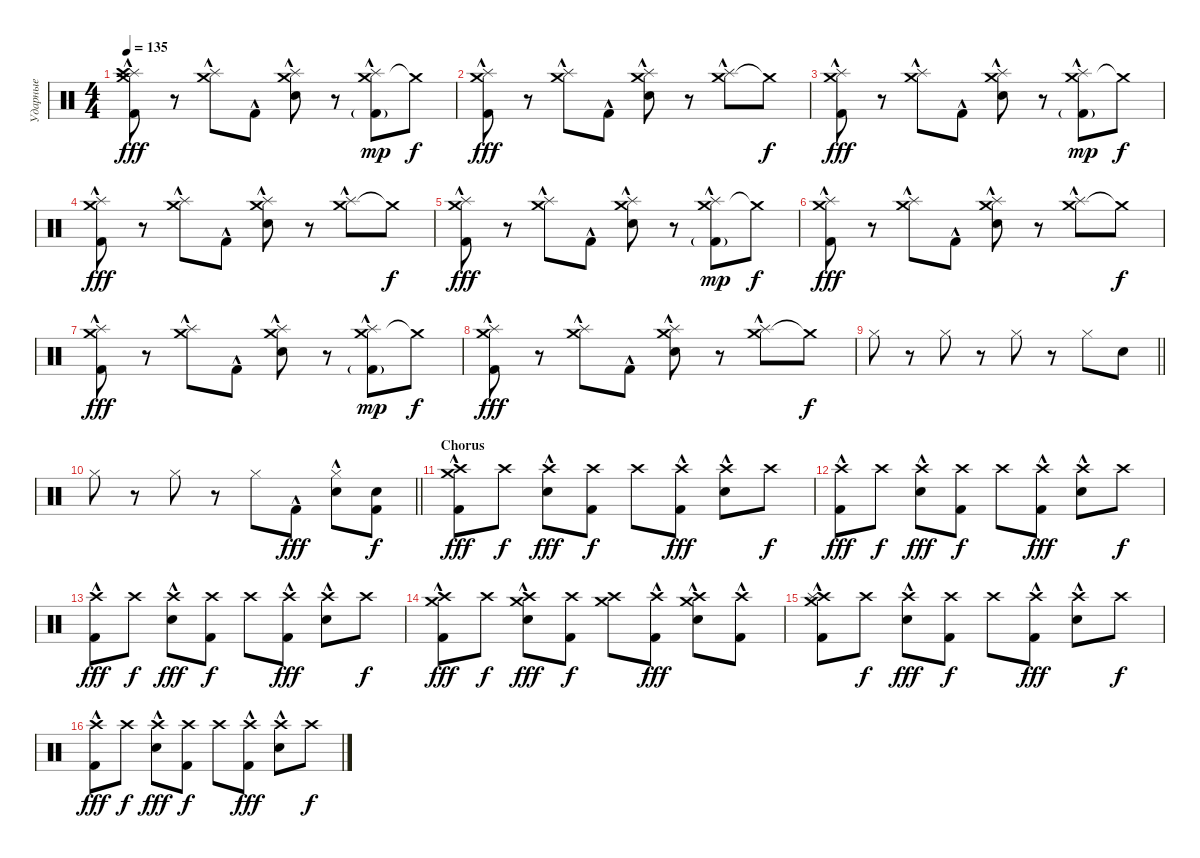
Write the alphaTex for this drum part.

\track ("Ударные" "Ударные") {instrument percussion}
\staff {score}
\articulation defaults
\ts (4 4)
\tempo 135
\clef neutral
\ks c
("Crash medium (hit)" "Splash (hit)"{hac} "Crash high (hit)"{hac} "Kick (hit) 2"{hac}).8{dy fff} r.8 ("Crash medium (hit)" "Splash (hit)"{hac}).8 "Kick (hit) 2"{hac}.8 ("Crash medium (hit)" "Splash (hit)"{hac} "Electric Snare (hit)").8 r.8 ("Crash medium (hit)" "Splash (hit)"{hac} "Kick (hit) 2"{g}).8{dy mp} "Crash medium (hit)"{t}.8{dy f} |
("Crash medium (hit)" "Splash (hit)"{hac} "Kick (hit) 2"{hac}).8{dy fff} r.8 ("Crash medium (hit)" "Splash (hit)"{hac}).8 "Kick (hit) 2"{hac}.8 ("Crash medium (hit)" "Splash (hit)"{hac} "Electric Snare (hit)").8 r.8 ("Crash medium (hit)" "Splash (hit)"{hac}).8 "Crash medium (hit)"{t}.8{dy f} |
("Crash medium (hit)" "Splash (hit)"{hac} "Kick (hit) 2"{hac}).8{dy fff} r.8 ("Crash medium (hit)" "Splash (hit)"{hac}).8 "Kick (hit) 2"{hac}.8 ("Crash medium (hit)" "Splash (hit)"{hac} "Electric Snare (hit)").8 r.8 ("Crash medium (hit)" "Splash (hit)"{hac} "Kick (hit) 2"{g}).8{dy mp} "Crash medium (hit)"{t}.8{dy f} |
("Crash medium (hit)" "Splash (hit)"{hac} "Kick (hit) 2"{hac}).8{dy fff} r.8 ("Crash medium (hit)" "Splash (hit)"{hac}).8 "Kick (hit) 2"{hac}.8 ("Crash medium (hit)" "Splash (hit)"{hac} "Electric Snare (hit)").8 r.8 ("Crash medium (hit)" "Splash (hit)"{hac}).8 "Crash medium (hit)"{t}.8{dy f} |
("Crash medium (hit)" "Splash (hit)"{hac} "Kick (hit) 2"{hac}).8{dy fff} r.8 ("Crash medium (hit)" "Splash (hit)"{hac}).8 "Kick (hit) 2"{hac}.8 ("Crash medium (hit)" "Splash (hit)"{hac} "Electric Snare (hit)").8 r.8 ("Crash medium (hit)" "Splash (hit)"{hac} "Kick (hit) 2"{g}).8{dy mp} "Crash medium (hit)"{t}.8{dy f} |
("Crash medium (hit)" "Splash (hit)"{hac} "Kick (hit) 2"{hac}).8{dy fff} r.8 ("Crash medium (hit)" "Splash (hit)"{hac}).8 "Kick (hit) 2"{hac}.8 ("Crash medium (hit)" "Splash (hit)"{hac} "Electric Snare (hit)").8 r.8 ("Crash medium (hit)" "Splash (hit)"{hac}).8 "Crash medium (hit)"{t}.8{dy f} |
("Crash medium (hit)" "Splash (hit)"{hac} "Kick (hit) 2"{hac}).8{dy fff} r.8 ("Crash medium (hit)" "Splash (hit)"{hac}).8 "Kick (hit) 2"{hac}.8 ("Crash medium (hit)" "Splash (hit)"{hac} "Electric Snare (hit)").8 r.8 ("Crash medium (hit)" "Splash (hit)"{hac} "Kick (hit) 2"{g}).8{dy mp} "Crash medium (hit)"{t}.8{dy f} |
("Crash medium (hit)" "Splash (hit)"{hac} "Kick (hit) 2"{hac}).8{dy fff} r.8 ("Crash medium (hit)" "Splash (hit)"{hac}).8 "Kick (hit) 2"{hac}.8 ("Crash medium (hit)" "Splash (hit)"{hac} "Electric Snare (hit)").8 r.8 ("Crash medium (hit)" "Splash (hit)"{hac}).8 "Crash medium (hit)"{t}.8{dy f} |
\barLineRight lightlight "Hi-Hat (closed)".8
r.8 "Hi-Hat (closed)".8 r.8 "Hi-Hat (closed)".8 r.8 "Hi-Hat (closed)".8 "Snare (hit)".8 |
\barLineRight lightlight "Hi-Hat (closed)".8
r.8 "Hi-Hat (closed)".8 r.8 "Hi-Hat (closed)".8 "Kick (hit) 2"{hac}.8{dy fff} ("Hi-Hat (closed)" "Electric Snare (hit)"{hac}).8 ("Snare (hit)" "Kick (hit) 2").8{dy f} |
\section ("" "Chorus")
("Crash high (hit)" "Crash medium (hit)"{hac} "Kick (hit) 2"{hac}).8{dy fff} "Crash high (hit)".8{dy f} ("Crash high (hit)" "Electric Snare (hit)"{hac}).8{dy fff} ("Crash high (hit)" "Kick (hit) 2").8{dy f} "Crash high (hit)".8 ("Crash high (hit)" "Kick (hit) 2"{hac}).8{dy fff} ("Crash high (hit)" "Electric Snare (hit)"{hac}).8 "Crash high (hit)".8{dy f} |
("Crash high (hit)" "Kick (hit) 2"{hac}).8{dy fff} "Crash high (hit)".8{dy f} ("Crash high (hit)" "Electric Snare (hit)"{hac}).8{dy fff} ("Crash high (hit)" "Kick (hit) 2").8{dy f} "Crash high (hit)".8 ("Crash high (hit)" "Kick (hit) 2"{hac}).8{dy fff} ("Crash high (hit)" "Electric Snare (hit)"{hac}).8 "Crash high (hit)".8{dy f} |
("Crash high (hit)" "Kick (hit) 2"{hac}).8{dy fff} "Crash high (hit)".8{dy f} ("Crash high (hit)" "Electric Snare (hit)"{hac}).8{dy fff} ("Crash high (hit)" "Kick (hit) 2").8{dy f} "Crash high (hit)".8 ("Crash high (hit)" "Kick (hit) 2"{hac}).8{dy fff} ("Crash high (hit)" "Electric Snare (hit)"{hac}).8 "Crash high (hit)".8{dy f} |
("Crash high (hit)" "Crash medium (hit)" "Kick (hit) 2"{hac}).8{dy fff} "Crash high (hit)".8{dy f} ("Crash high (hit)" "Crash medium (hit)" "Electric Snare (hit)"{hac}).8{dy fff} ("Crash high (hit)" "Kick (hit) 2").8{dy f} ("Crash high (hit)" "Crash medium (hit)").8 ("Crash high (hit)" "Kick (hit) 2"{hac}).8{dy fff} ("Crash high (hit)" "Crash medium (hit)" "Electric Snare (hit)"{hac}).8 ("Crash high (hit)" "Kick (hit) 2"{hac}).8 |
("Crash high (hit)"{hac} "Crash medium (hit)"{hac} "Splash (hit)"{hac} "Kick (hit) 2"{hac}).8 "Crash high (hit)".8{dy f} ("Crash high (hit)" "Electric Snare (hit)"{hac}).8{dy fff} ("Crash high (hit)" "Kick (hit) 2").8{dy f} "Crash high (hit)".8 ("Crash high (hit)" "Kick (hit) 2"{hac}).8{dy fff} ("Crash high (hit)" "Electric Snare (hit)"{hac}).8 "Crash high (hit)".8{dy f} |
("Crash high (hit)" "Kick (hit) 2"{hac}).8{dy fff} "Crash high (hit)".8{dy f} ("Crash high (hit)" "Electric Snare (hit)"{hac}).8{dy fff} ("Crash high (hit)" "Kick (hit) 2").8{dy f} "Crash high (hit)".8 ("Crash high (hit)" "Kick (hit) 2"{hac}).8{dy fff} ("Crash high (hit)" "Electric Snare (hit)"{hac}).8 "Crash high (hit)".8{dy f}
